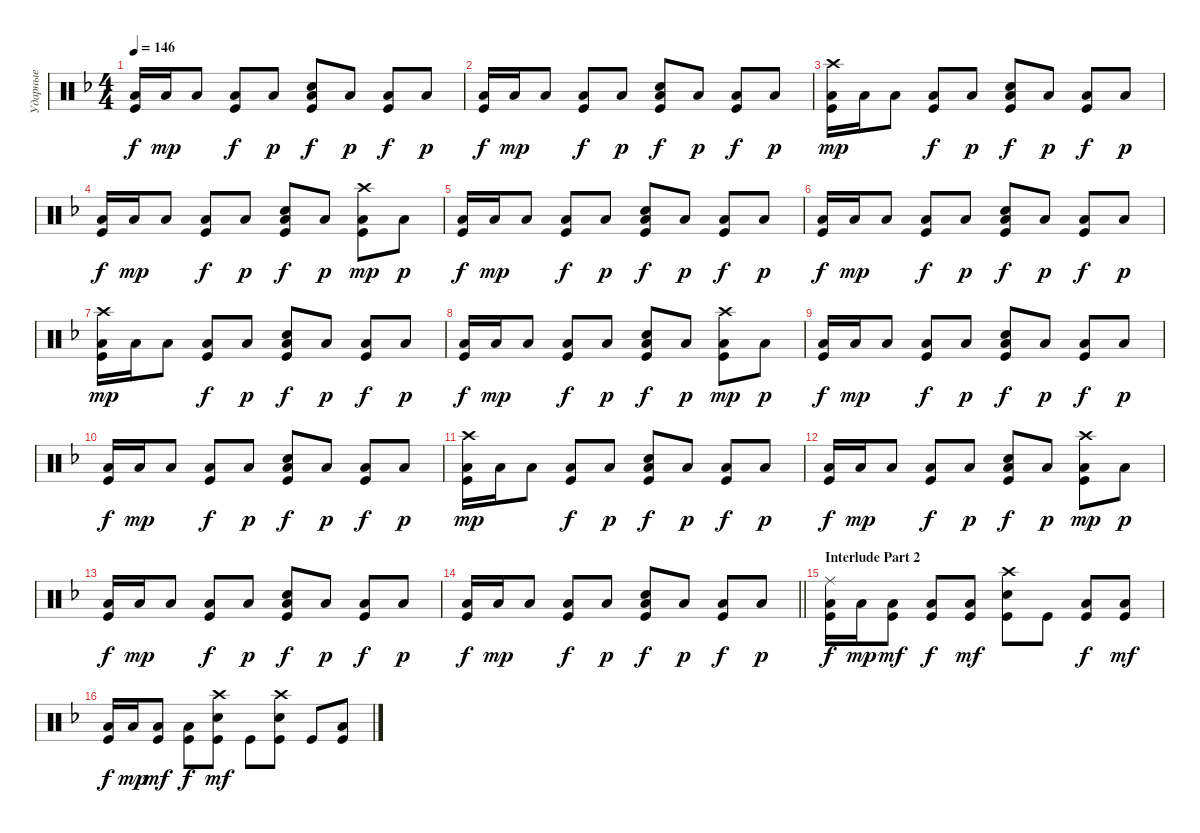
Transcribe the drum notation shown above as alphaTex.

\track ("Ударные" "Ударные") {instrument percussion}
\staff {score}
\articulation defaults
\ts (4 4)
\tempo 146
\clef neutral
\ks dminor
("Kick (hit)" "Low Floor Tom (hit)").16{dy f} "Low Floor Tom (hit)".16{dy mp} "Low Floor Tom (hit)".8 ("Kick (hit)" "Low Floor Tom (hit)").8{bd 120 dy f} "Low Floor Tom (hit)".8{dy p} ("Kick (hit)" "Low Floor Tom (hit)" "Snare (hit) 2").8{bd 120 dy f} "Low Floor Tom (hit)".8{dy p} ("Kick (hit)" "Low Floor Tom (hit)").8{dy f} "Low Floor Tom (hit)".8{dy p} |
("Kick (hit)" "Low Floor Tom (hit)").16{dy f} "Low Floor Tom (hit)".16{dy mp} "Low Floor Tom (hit)".8 ("Kick (hit)" "Low Floor Tom (hit)").8{bd 120 dy f} "Low Floor Tom (hit)".8{dy p} ("Kick (hit)" "Low Floor Tom (hit)" "Snare (hit) 2").8{bd 120 dy f} "Low Floor Tom (hit)".8{dy p} ("Kick (hit)" "Low Floor Tom (hit)").8{dy f} "Low Floor Tom (hit)".8{dy p} |
("Kick (hit)" "Low Floor Tom (hit)" "Crash high (hit)").16{dy mp} "Low Floor Tom (hit)".16 "Low Floor Tom (hit)".8 ("Kick (hit)" "Low Floor Tom (hit)").8{bd 120 dy f} "Low Floor Tom (hit)".8{dy p} ("Kick (hit)" "Low Floor Tom (hit)" "Snare (hit) 2").8{bd 120 dy f} "Low Floor Tom (hit)".8{dy p} ("Kick (hit)" "Low Floor Tom (hit)").8{dy f} "Low Floor Tom (hit)".8{dy p} |
("Kick (hit)" "Low Floor Tom (hit)").16{dy f} "Low Floor Tom (hit)".16{dy mp} "Low Floor Tom (hit)".8 ("Kick (hit)" "Low Floor Tom (hit)").8{bd 120 dy f} "Low Floor Tom (hit)".8{dy p} ("Kick (hit)" "Low Floor Tom (hit)" "Snare (hit) 2").8{bd 120 dy f} "Low Floor Tom (hit)".8{dy p} ("Kick (hit)" "Low Floor Tom (hit)" "Crash high (hit)").8{dy mp} "Low Floor Tom (hit)".8{dy p} |
("Kick (hit)" "Low Floor Tom (hit)").16{dy f} "Low Floor Tom (hit)".16{dy mp} "Low Floor Tom (hit)".8 ("Kick (hit)" "Low Floor Tom (hit)").8{bd 120 dy f} "Low Floor Tom (hit)".8{dy p} ("Kick (hit)" "Low Floor Tom (hit)" "Snare (hit) 2").8{bd 120 dy f} "Low Floor Tom (hit)".8{dy p} ("Kick (hit)" "Low Floor Tom (hit)").8{dy f} "Low Floor Tom (hit)".8{dy p} |
("Kick (hit)" "Low Floor Tom (hit)").16{dy f} "Low Floor Tom (hit)".16{dy mp} "Low Floor Tom (hit)".8 ("Kick (hit)" "Low Floor Tom (hit)").8{bd 120 dy f} "Low Floor Tom (hit)".8{dy p} ("Kick (hit)" "Low Floor Tom (hit)" "Snare (hit) 2").8{bd 120 dy f} "Low Floor Tom (hit)".8{dy p} ("Kick (hit)" "Low Floor Tom (hit)").8{dy f} "Low Floor Tom (hit)".8{dy p} |
("Kick (hit)" "Low Floor Tom (hit)" "Crash high (hit)").16{dy mp} "Low Floor Tom (hit)".16 "Low Floor Tom (hit)".8 ("Kick (hit)" "Low Floor Tom (hit)").8{bd 120 dy f} "Low Floor Tom (hit)".8{dy p} ("Kick (hit)" "Low Floor Tom (hit)" "Snare (hit) 2").8{bd 120 dy f} "Low Floor Tom (hit)".8{dy p} ("Kick (hit)" "Low Floor Tom (hit)").8{dy f} "Low Floor Tom (hit)".8{dy p} |
("Kick (hit)" "Low Floor Tom (hit)").16{dy f} "Low Floor Tom (hit)".16{dy mp} "Low Floor Tom (hit)".8 ("Kick (hit)" "Low Floor Tom (hit)").8{bd 120 dy f} "Low Floor Tom (hit)".8{dy p} ("Kick (hit)" "Low Floor Tom (hit)" "Snare (hit) 2").8{bd 120 dy f} "Low Floor Tom (hit)".8{dy p} ("Kick (hit)" "Low Floor Tom (hit)" "Crash high (hit)").8{dy mp} "Low Floor Tom (hit)".8{dy p} |
("Kick (hit)" "Low Floor Tom (hit)").16{dy f} "Low Floor Tom (hit)".16{dy mp} "Low Floor Tom (hit)".8 ("Kick (hit)" "Low Floor Tom (hit)").8{bd 120 dy f} "Low Floor Tom (hit)".8{dy p} ("Kick (hit)" "Low Floor Tom (hit)" "Snare (hit) 2").8{bd 120 dy f} "Low Floor Tom (hit)".8{dy p} ("Kick (hit)" "Low Floor Tom (hit)").8{dy f} "Low Floor Tom (hit)".8{dy p} |
("Kick (hit)" "Low Floor Tom (hit)").16{dy f} "Low Floor Tom (hit)".16{dy mp} "Low Floor Tom (hit)".8 ("Kick (hit)" "Low Floor Tom (hit)").8{bd 120 dy f} "Low Floor Tom (hit)".8{dy p} ("Kick (hit)" "Low Floor Tom (hit)" "Snare (hit) 2").8{bd 120 dy f} "Low Floor Tom (hit)".8{dy p} ("Kick (hit)" "Low Floor Tom (hit)").8{dy f} "Low Floor Tom (hit)".8{dy p} |
("Kick (hit)" "Low Floor Tom (hit)" "Crash high (hit)").16{dy mp} "Low Floor Tom (hit)".16 "Low Floor Tom (hit)".8 ("Kick (hit)" "Low Floor Tom (hit)").8{bd 120 dy f} "Low Floor Tom (hit)".8{dy p} ("Kick (hit)" "Low Floor Tom (hit)" "Snare (hit) 2").8{bd 120 dy f} "Low Floor Tom (hit)".8{dy p} ("Kick (hit)" "Low Floor Tom (hit)").8{dy f} "Low Floor Tom (hit)".8{dy p} |
("Kick (hit)" "Low Floor Tom (hit)").16{dy f} "Low Floor Tom (hit)".16{dy mp} "Low Floor Tom (hit)".8 ("Kick (hit)" "Low Floor Tom (hit)").8{bd 120 dy f} "Low Floor Tom (hit)".8{dy p} ("Kick (hit)" "Low Floor Tom (hit)" "Snare (hit) 2").8{bd 120 dy f} "Low Floor Tom (hit)".8{dy p} ("Kick (hit)" "Low Floor Tom (hit)" "Crash high (hit)").8{dy mp} "Low Floor Tom (hit)".8{dy p} |
("Kick (hit)" "Low Floor Tom (hit)").16{dy f} "Low Floor Tom (hit)".16{dy mp} "Low Floor Tom (hit)".8 ("Kick (hit)" "Low Floor Tom (hit)").8{bd 120 dy f} "Low Floor Tom (hit)".8{dy p} ("Kick (hit)" "Low Floor Tom (hit)" "Snare (hit) 2").8{bd 120 dy f} "Low Floor Tom (hit)".8{dy p} ("Kick (hit)" "Low Floor Tom (hit)").8{dy f} "Low Floor Tom (hit)".8{dy p} |
\barLineRight lightlight
("Kick (hit)" "Low Floor Tom (hit)").16{dy f} "Low Floor Tom (hit)".16{dy mp} "Low Floor Tom (hit)".8 ("Kick (hit)" "Low Floor Tom (hit)").8{bd 120 dy f} "Low Floor Tom (hit)".8{dy p} ("Kick (hit)" "Low Floor Tom (hit)" "Snare (hit) 2").8{bd 120 dy f} "Low Floor Tom (hit)".8{dy p} ("Kick (hit)" "Low Floor Tom (hit)").8{dy f} "Low Floor Tom (hit)".8{dy p} |
\section ("" "Interlude Part 2")
("Kick (hit)" "Low Floor Tom (hit)" "Ride (middle)").16{dy f} "Low Floor Tom (hit)".16{dy mp} ("Kick (hit)" "Low Floor Tom (hit)").8{dy mf} ("Kick (hit)" "Low Floor Tom (hit)").8{bd 120 dy f} ("Low Floor Tom (hit)" "Kick (hit)").8{dy mf} ("Kick (hit)" "Crash high (hit)" "Snare (hit) 2").8{bd 120} "Kick (hit)".8 ("Kick (hit)" "Low Floor Tom (hit)").8{dy f} ("Low Floor Tom (hit)" "Kick (hit)").8{dy mf} |
("Kick (hit)" "Low Floor Tom (hit)").16{dy f} "Low Floor Tom (hit)".16{dy mp} ("Kick (hit)" "Low Floor Tom (hit)").8{dy mf} ("Kick (hit)" "Low Floor Tom (hit)").8{bd 120 dy f} ("Kick (hit)" "Crash high (hit)" "Snare (hit) 2").8{bd 120 dy mf} "Kick (hit)".8 ("Kick (hit)" "Crash high (hit)" "Snare (hit) 2").8 "Kick (hit)".8 ("Kick (hit)" "Low Floor Tom (hit)").8
